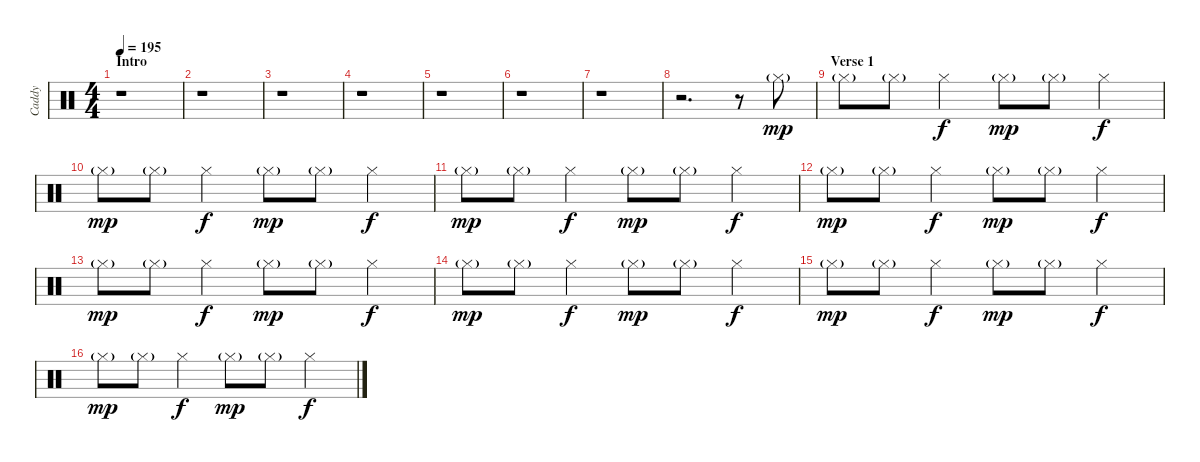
\track ("Caddy" "Caddy") {instrument percussion}
\staff {score}
\articulation defaults
\ts (4 4)
\section ("" "Intro")
\tempo 195
\clef neutral
\ks c
r.1{dy mp} |
r.1 |
r.1 |
r.1 |
r.1 |
r.1 |
r.1 |
r.2{d} r.8 "Hi-Hat (closed)"{g}.8 |
\section ("" "Verse 1")
"Hi-Hat (closed)"{g}.8 "Hi-Hat (closed)"{g}.8 "Hi-Hat (closed)".4{dy f} "Hi-Hat (closed)"{g}.8{dy mp} "Hi-Hat (closed)"{g}.8 "Hi-Hat (closed)".4{dy f} |
"Hi-Hat (closed)"{g}.8{dy mp} "Hi-Hat (closed)"{g}.8 "Hi-Hat (closed)".4{dy f} "Hi-Hat (closed)"{g}.8{dy mp} "Hi-Hat (closed)"{g}.8 "Hi-Hat (closed)".4{dy f} |
"Hi-Hat (closed)"{g}.8{dy mp} "Hi-Hat (closed)"{g}.8 "Hi-Hat (closed)".4{dy f} "Hi-Hat (closed)"{g}.8{dy mp} "Hi-Hat (closed)"{g}.8 "Hi-Hat (closed)".4{dy f} |
"Hi-Hat (closed)"{g}.8{dy mp} "Hi-Hat (closed)"{g}.8 "Hi-Hat (closed)".4{dy f} "Hi-Hat (closed)"{g}.8{dy mp} "Hi-Hat (closed)"{g}.8 "Hi-Hat (closed)".4{dy f} |
"Hi-Hat (closed)"{g}.8{dy mp} "Hi-Hat (closed)"{g}.8 "Hi-Hat (closed)".4{dy f} "Hi-Hat (closed)"{g}.8{dy mp} "Hi-Hat (closed)"{g}.8 "Hi-Hat (closed)".4{dy f} |
"Hi-Hat (closed)"{g}.8{dy mp} "Hi-Hat (closed)"{g}.8 "Hi-Hat (closed)".4{dy f} "Hi-Hat (closed)"{g}.8{dy mp} "Hi-Hat (closed)"{g}.8 "Hi-Hat (closed)".4{dy f} |
"Hi-Hat (closed)"{g}.8{dy mp} "Hi-Hat (closed)"{g}.8 "Hi-Hat (closed)".4{dy f} "Hi-Hat (closed)"{g}.8{dy mp} "Hi-Hat (closed)"{g}.8 "Hi-Hat (closed)".4{dy f} |
"Hi-Hat (closed)"{g}.8{dy mp} "Hi-Hat (closed)"{g}.8 "Hi-Hat (closed)".4{dy f} "Hi-Hat (closed)"{g}.8{dy mp} "Hi-Hat (closed)"{g}.8 "Hi-Hat (closed)".4{dy f}
